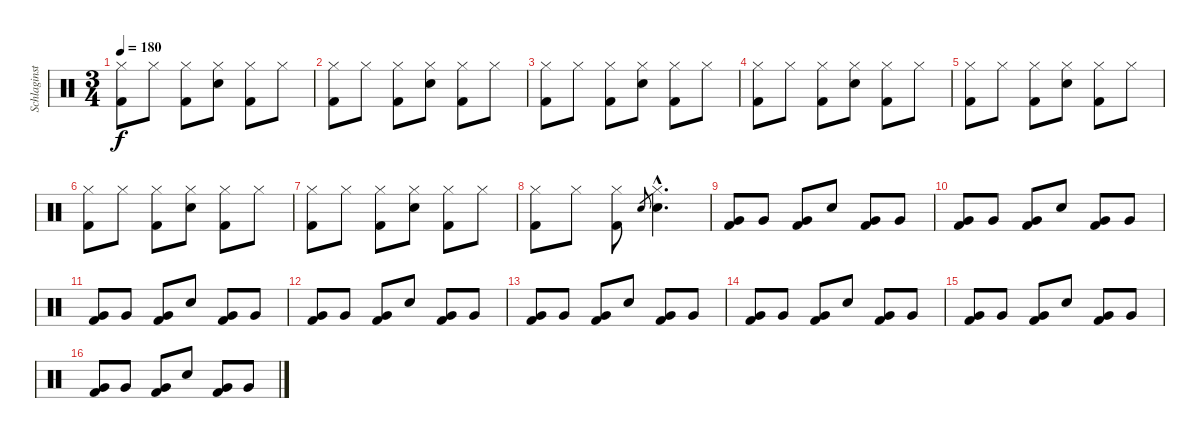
\track ("Schlaginstrumente - Auswahl" "Schlaginst") {instrument percussion}
\staff {score}
\articulation defaults
\ts (3 4)
\tempo 180
\clef neutral
\ks c
("Hi-Hat (closed)" "Kick (hit) 2").8{dy f} "Hi-Hat (closed)".8 ("Hi-Hat (closed)" "Kick (hit) 2").8 ("Hi-Hat (closed)" "Snare (hit) 2").8 ("Hi-Hat (closed)" "Kick (hit) 2").8 "Hi-Hat (closed)".8 |
("Hi-Hat (closed)" "Kick (hit) 2").8 "Hi-Hat (closed)".8 ("Hi-Hat (closed)" "Kick (hit) 2").8 ("Hi-Hat (closed)" "Snare (hit) 2").8 ("Hi-Hat (closed)" "Kick (hit) 2").8 "Hi-Hat (closed)".8 |
("Hi-Hat (closed)" "Kick (hit) 2").8 "Hi-Hat (closed)".8 ("Hi-Hat (closed)" "Kick (hit) 2").8 ("Hi-Hat (closed)" "Snare (hit) 2").8 ("Hi-Hat (closed)" "Kick (hit) 2").8 "Hi-Hat (closed)".8 |
("Hi-Hat (closed)" "Kick (hit) 2").8 "Hi-Hat (closed)".8 ("Hi-Hat (closed)" "Kick (hit) 2").8 ("Hi-Hat (closed)" "Snare (hit) 2").8 ("Hi-Hat (closed)" "Kick (hit) 2").8 "Hi-Hat (closed)".8 |
("Hi-Hat (closed)" "Kick (hit) 2").8 "Hi-Hat (closed)".8 ("Hi-Hat (closed)" "Kick (hit) 2").8 ("Hi-Hat (closed)" "Snare (hit) 2").8 ("Hi-Hat (closed)" "Kick (hit) 2").8 "Hi-Hat (closed)".8 |
("Hi-Hat (closed)" "Kick (hit) 2").8 "Hi-Hat (closed)".8 ("Hi-Hat (closed)" "Kick (hit) 2").8 ("Hi-Hat (closed)" "Snare (hit) 2").8 ("Hi-Hat (closed)" "Kick (hit) 2").8 "Hi-Hat (closed)".8 |
("Hi-Hat (closed)" "Kick (hit) 2").8 "Hi-Hat (closed)".8 ("Hi-Hat (closed)" "Kick (hit) 2").8 ("Hi-Hat (closed)" "Snare (hit) 2").8 ("Hi-Hat (closed)" "Kick (hit) 2").8 "Hi-Hat (closed)".8 |
("Hi-Hat (closed)" "Kick (hit) 2").8 "Hi-Hat (closed)".8 ("Hi-Hat (closed)" "Kick (hit) 2").8 "Snare (hit) 2".8{gr} ("Hi-Hat (closed)"{hac} "Snare (hit) 2"{hac}).4{d} |
("Very Low Tom (hit)" "Kick (hit) 2").8 "Very Low Tom (hit)".8 ("Very Low Tom (hit)" "Kick (hit) 2").8 "Snare (hit) 2".8 ("Very Low Tom (hit)" "Kick (hit) 2").8 "Very Low Tom (hit)".8 |
("Very Low Tom (hit)" "Kick (hit) 2").8 "Very Low Tom (hit)".8 ("Very Low Tom (hit)" "Kick (hit) 2").8 "Snare (hit) 2".8 ("Very Low Tom (hit)" "Kick (hit) 2").8 "Very Low Tom (hit)".8 |
("Very Low Tom (hit)" "Kick (hit) 2").8 "Very Low Tom (hit)".8 ("Very Low Tom (hit)" "Kick (hit) 2").8 "Snare (hit) 2".8 ("Very Low Tom (hit)" "Kick (hit) 2").8 "Very Low Tom (hit)".8 |
("Very Low Tom (hit)" "Kick (hit) 2").8 "Very Low Tom (hit)".8 ("Very Low Tom (hit)" "Kick (hit) 2").8 "Snare (hit) 2".8 ("Very Low Tom (hit)" "Kick (hit) 2").8 "Very Low Tom (hit)".8 |
("Very Low Tom (hit)" "Kick (hit) 2").8 "Very Low Tom (hit)".8 ("Very Low Tom (hit)" "Kick (hit) 2").8 "Snare (hit) 2".8 ("Very Low Tom (hit)" "Kick (hit) 2").8 "Very Low Tom (hit)".8 |
("Very Low Tom (hit)" "Kick (hit) 2").8 "Very Low Tom (hit)".8 ("Very Low Tom (hit)" "Kick (hit) 2").8 "Snare (hit) 2".8 ("Very Low Tom (hit)" "Kick (hit) 2").8 "Very Low Tom (hit)".8 |
("Very Low Tom (hit)" "Kick (hit) 2").8 "Very Low Tom (hit)".8 ("Very Low Tom (hit)" "Kick (hit) 2").8 "Snare (hit) 2".8 ("Very Low Tom (hit)" "Kick (hit) 2").8 "Very Low Tom (hit)".8 |
("Very Low Tom (hit)" "Kick (hit) 2").8 "Very Low Tom (hit)".8 ("Very Low Tom (hit)" "Kick (hit) 2").8 "Snare (hit) 2".8 ("Very Low Tom (hit)" "Kick (hit) 2").8 "Very Low Tom (hit)".8
